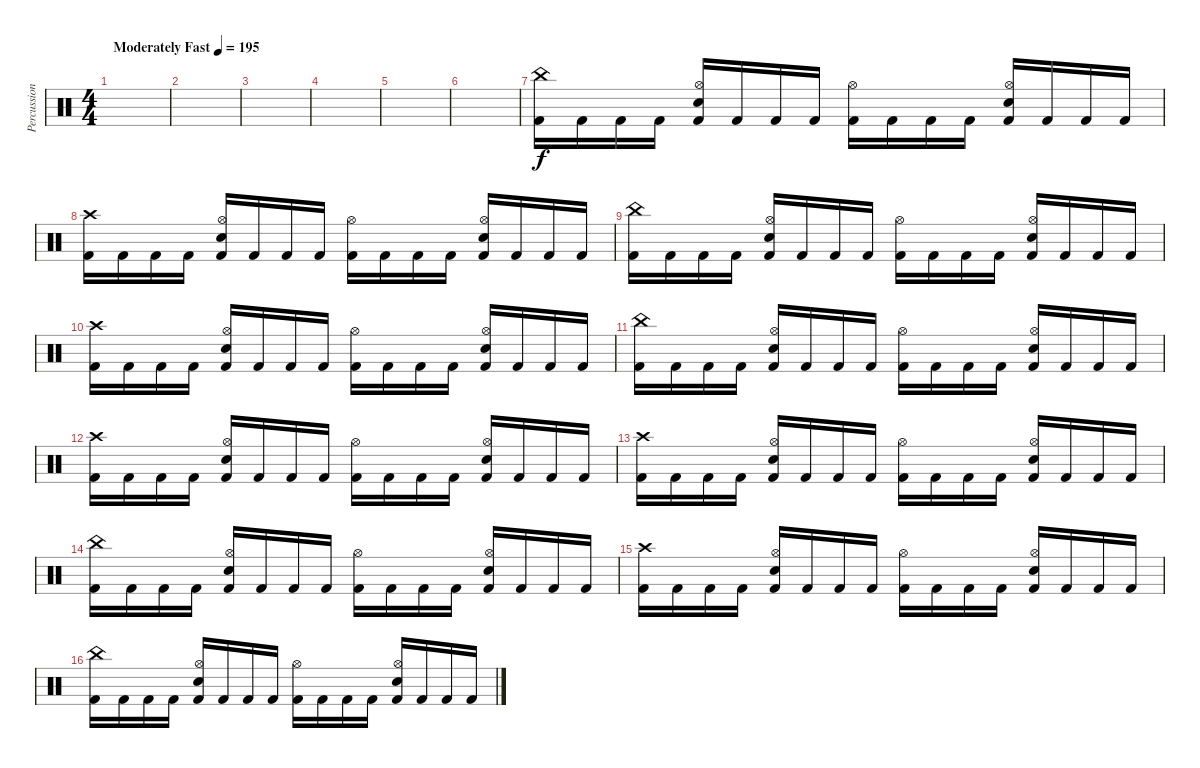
\track ("Percussion" "Percussion") {instrument percussion}
\staff {score}
\articulation defaults
\ts (4 4)
\tempo (195 "Moderately Fast")
\clef neutral
\ks c
|
|
|
|
|
|
("China (hit)" "Kick (hit) 2").16 "Kick (hit) 2".16 "Kick (hit) 2".16 "Kick (hit) 2".16 ("Hi-Hat (open)" "Electric Snare (hit)" "Kick (hit) 2").16 "Kick (hit) 2".16 "Kick (hit) 2".16 "Kick (hit) 2".16 ("Hi-Hat (open)" "Kick (hit) 2").16 "Kick (hit) 2".16 "Kick (hit) 2".16 "Kick (hit) 2".16 ("Hi-Hat (open)" "Electric Snare (hit)" "Kick (hit) 2").16 "Kick (hit) 2".16 "Kick (hit) 2".16 "Kick (hit) 2".16 |
("Crash high (hit)" "Kick (hit) 2").16 "Kick (hit) 2".16 "Kick (hit) 2".16 "Kick (hit) 2".16 ("Hi-Hat (open)" "Electric Snare (hit)" "Kick (hit) 2").16 "Kick (hit) 2".16 "Kick (hit) 2".16 "Kick (hit) 2".16 ("Hi-Hat (open)" "Kick (hit) 2").16 "Kick (hit) 2".16 "Kick (hit) 2".16 "Kick (hit) 2".16 ("Hi-Hat (open)" "Electric Snare (hit)" "Kick (hit) 2").16 "Kick (hit) 2".16 "Kick (hit) 2".16 "Kick (hit) 2".16 |
("China (hit)" "Kick (hit) 2").16 "Kick (hit) 2".16 "Kick (hit) 2".16 "Kick (hit) 2".16 ("Hi-Hat (open)" "Electric Snare (hit)" "Kick (hit) 2").16 "Kick (hit) 2".16 "Kick (hit) 2".16 "Kick (hit) 2".16 ("Hi-Hat (open)" "Kick (hit) 2").16 "Kick (hit) 2".16 "Kick (hit) 2".16 "Kick (hit) 2".16 ("Hi-Hat (open)" "Electric Snare (hit)" "Kick (hit) 2").16 "Kick (hit) 2".16 "Kick (hit) 2".16 "Kick (hit) 2".16 |
("Crash high (hit)" "Kick (hit) 2").16 "Kick (hit) 2".16 "Kick (hit) 2".16 "Kick (hit) 2".16 ("Hi-Hat (open)" "Electric Snare (hit)" "Kick (hit) 2").16 "Kick (hit) 2".16 "Kick (hit) 2".16 "Kick (hit) 2".16 ("Hi-Hat (open)" "Kick (hit) 2").16 "Kick (hit) 2".16 "Kick (hit) 2".16 "Kick (hit) 2".16 ("Hi-Hat (open)" "Electric Snare (hit)" "Kick (hit) 2").16 "Kick (hit) 2".16 "Kick (hit) 2".16 "Kick (hit) 2".16 |
("China (hit)" "Kick (hit) 2").16 "Kick (hit) 2".16 "Kick (hit) 2".16 "Kick (hit) 2".16 ("Hi-Hat (open)" "Electric Snare (hit)" "Kick (hit) 2").16 "Kick (hit) 2".16 "Kick (hit) 2".16 "Kick (hit) 2".16 ("Hi-Hat (open)" "Kick (hit) 2").16 "Kick (hit) 2".16 "Kick (hit) 2".16 "Kick (hit) 2".16 ("Hi-Hat (open)" "Electric Snare (hit)" "Kick (hit) 2").16 "Kick (hit) 2".16 "Kick (hit) 2".16 "Kick (hit) 2".16 |
("Crash high (hit)" "Kick (hit) 2").16 "Kick (hit) 2".16 "Kick (hit) 2".16 "Kick (hit) 2".16 ("Hi-Hat (open)" "Electric Snare (hit)" "Kick (hit) 2").16 "Kick (hit) 2".16 "Kick (hit) 2".16 "Kick (hit) 2".16 ("Hi-Hat (open)" "Kick (hit) 2").16 "Kick (hit) 2".16 "Kick (hit) 2".16 "Kick (hit) 2".16 ("Hi-Hat (open)" "Electric Snare (hit)" "Kick (hit) 2").16 "Kick (hit) 2".16 "Kick (hit) 2".16 "Kick (hit) 2".16 |
("Crash high (hit)" "Kick (hit) 2").16 "Kick (hit) 2".16 "Kick (hit) 2".16 "Kick (hit) 2".16 ("Hi-Hat (open)" "Electric Snare (hit)" "Kick (hit) 2").16 "Kick (hit) 2".16 "Kick (hit) 2".16 "Kick (hit) 2".16 ("Hi-Hat (open)" "Kick (hit) 2").16 "Kick (hit) 2".16 "Kick (hit) 2".16 "Kick (hit) 2".16 ("Hi-Hat (open)" "Electric Snare (hit)" "Kick (hit) 2").16 "Kick (hit) 2".16 "Kick (hit) 2".16 "Kick (hit) 2".16 |
("China (hit)" "Kick (hit) 2").16 "Kick (hit) 2".16 "Kick (hit) 2".16 "Kick (hit) 2".16 ("Hi-Hat (open)" "Electric Snare (hit)" "Kick (hit) 2").16 "Kick (hit) 2".16 "Kick (hit) 2".16 "Kick (hit) 2".16 ("Hi-Hat (open)" "Kick (hit) 2").16 "Kick (hit) 2".16 "Kick (hit) 2".16 "Kick (hit) 2".16 ("Hi-Hat (open)" "Electric Snare (hit)" "Kick (hit) 2").16 "Kick (hit) 2".16 "Kick (hit) 2".16 "Kick (hit) 2".16 |
("Crash high (hit)" "Kick (hit) 2").16 "Kick (hit) 2".16 "Kick (hit) 2".16 "Kick (hit) 2".16 ("Hi-Hat (open)" "Electric Snare (hit)" "Kick (hit) 2").16 "Kick (hit) 2".16 "Kick (hit) 2".16 "Kick (hit) 2".16 ("Hi-Hat (open)" "Kick (hit) 2").16 "Kick (hit) 2".16 "Kick (hit) 2".16 "Kick (hit) 2".16 ("Hi-Hat (open)" "Electric Snare (hit)" "Kick (hit) 2").16 "Kick (hit) 2".16 "Kick (hit) 2".16 "Kick (hit) 2".16 |
("China (hit)" "Kick (hit) 2").16 "Kick (hit) 2".16 "Kick (hit) 2".16 "Kick (hit) 2".16 ("Hi-Hat (open)" "Electric Snare (hit)" "Kick (hit) 2").16 "Kick (hit) 2".16 "Kick (hit) 2".16 "Kick (hit) 2".16 ("Hi-Hat (open)" "Kick (hit) 2").16 "Kick (hit) 2".16 "Kick (hit) 2".16 "Kick (hit) 2".16 ("Hi-Hat (open)" "Electric Snare (hit)" "Kick (hit) 2").16 "Kick (hit) 2".16 "Kick (hit) 2".16 "Kick (hit) 2".16
